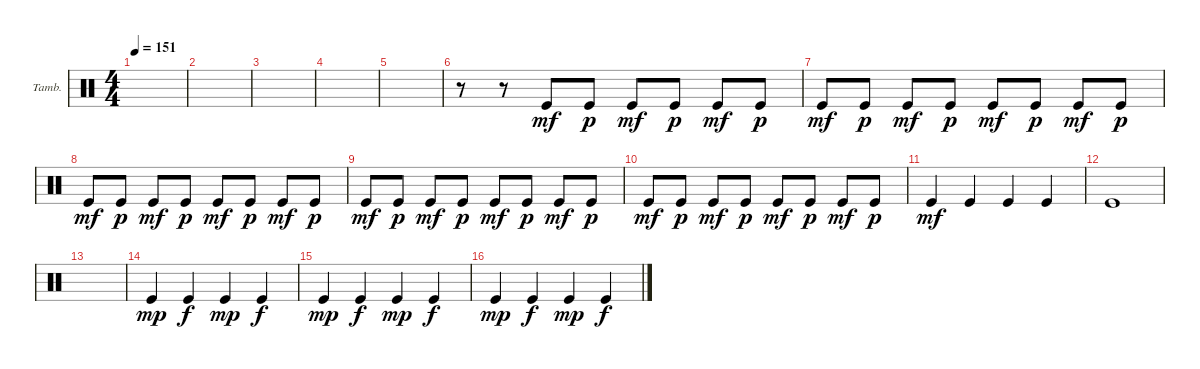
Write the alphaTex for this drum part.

\defaultSystemsLayout 4
\bracketExtendMode groupsimilarinstruments
\firstSystemTrackNameOrientation horizontal
\otherSystemsTrackNameOrientation horizontal
\track ("Helders" "Tamb.") {instrument percussion}
\staff {score}
\articulation defaults
\ts (4 4)
\tempo 151
\clef neutral
\ks c
|
|
|
|
|
r.8 r.8 "Kick (hit)".8{dy mf} "Kick (hit)".8{dy p} "Kick (hit)".8{dy mf} "Kick (hit)".8{dy p} "Kick (hit)".8{dy mf} "Kick (hit)".8{dy p} |
"Kick (hit)".8{dy mf} "Kick (hit)".8{dy p} "Kick (hit)".8{dy mf} "Kick (hit)".8{dy p} "Kick (hit)".8{dy mf} "Kick (hit)".8{dy p} "Kick (hit)".8{dy mf} "Kick (hit)".8{dy p} |
"Kick (hit)".8{dy mf} "Kick (hit)".8{dy p} "Kick (hit)".8{dy mf} "Kick (hit)".8{dy p} "Kick (hit)".8{dy mf} "Kick (hit)".8{dy p} "Kick (hit)".8{dy mf} "Kick (hit)".8{dy p} |
"Kick (hit)".8{dy mf} "Kick (hit)".8{dy p} "Kick (hit)".8{dy mf} "Kick (hit)".8{dy p} "Kick (hit)".8{dy mf} "Kick (hit)".8{dy p} "Kick (hit)".8{dy mf} "Kick (hit)".8{dy p} |
"Kick (hit)".8{dy mf} "Kick (hit)".8{dy p} "Kick (hit)".8{dy mf} "Kick (hit)".8{dy p} "Kick (hit)".8{dy mf} "Kick (hit)".8{dy p} "Kick (hit)".8{dy mf} "Kick (hit)".8{dy p} |
"Kick (hit)".4{dy mf} "Kick (hit)".4 "Kick (hit)".4 "Kick (hit)".4 |
"Kick (hit)".1 |
|
"Kick (hit)".4{dy mp} "Kick (hit)".4{dy f} "Kick (hit)".4{dy mp} "Kick (hit)".4{dy f} |
"Kick (hit)".4{dy mp} "Kick (hit)".4{dy f} "Kick (hit)".4{dy mp} "Kick (hit)".4{dy f} |
"Kick (hit)".4{dy mp} "Kick (hit)".4{dy f} "Kick (hit)".4{dy mp} "Kick (hit)".4{dy f}
